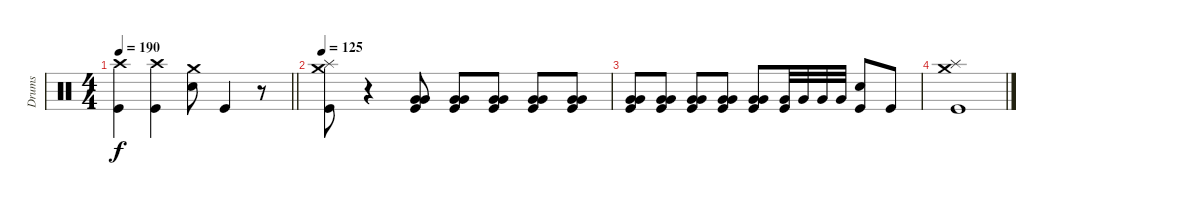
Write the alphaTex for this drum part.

\track ("Drums" "Drums") {instrument percussion}
\staff {score}
\articulation defaults
\ts (4 4)
\tempo 190
\clef neutral
\barLineRight lightlight
\ks c
("Crash high (hit)" "Kick (hit)").4{dy f} ("Crash high (hit)" "Kick (hit)").4 ("Crash medium (hit)" "Snare (hit) 2").8 "Kick (hit)".4 r.8 |
\tempo 125
("Splash (hit)" "Crash medium (hit)" "Kick (hit)").8 r.4 ("Very Low Tom (hit)" "Very Low Tom (hit)" "Kick (hit)").8 ("Very Low Tom (hit)" "Very Low Tom (hit)" "Kick (hit)").8 ("Very Low Tom (hit)" "Very Low Tom (hit)" "Kick (hit)").8 ("Very Low Tom (hit)" "Very Low Tom (hit)" "Kick (hit)").8 ("Very Low Tom (hit)" "Very Low Tom (hit)" "Kick (hit)").8 |
("Very Low Tom (hit)" "Very Low Tom (hit)" "Kick (hit)").8 ("Very Low Tom (hit)" "Very Low Tom (hit)" "Kick (hit)").8 ("Very Low Tom (hit)" "Very Low Tom (hit)" "Kick (hit)").8 ("Very Low Tom (hit)" "Very Low Tom (hit)" "Kick (hit)").8 ("Very Low Tom (hit)" "Very Low Tom (hit)" "Kick (hit)").8 ("Very Low Tom (hit)" "Kick (hit)").32 "Very Low Tom (hit)".32 "Very Low Tom (hit)".32 "Very Low Tom (hit)".32 ("Snare (hit) 2" "Kick (hit)").8 "Kick (hit)".8 |
("Splash (hit)" "Crash medium (hit)" "Kick (hit)").1
